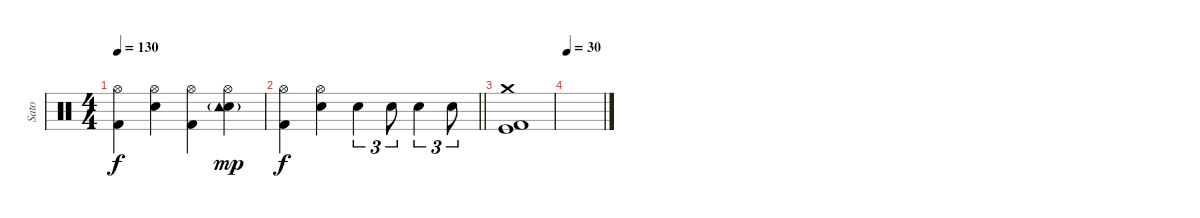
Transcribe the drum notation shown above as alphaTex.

\track ("Sato" "Sato") {instrument percussion}
\staff {score}
\articulation defaults
\ts (4 4)
\tempo 130
\clef neutral
\ks c
("Hi-Hat (open)" "Kick (hit) 2").4{dy f} ("Hi-Hat (open)" "Electric Snare (hit)").4 ("Hi-Hat (open)" "Kick (hit) 2").4 ("Hi-Hat (open)" "Electric Snare (hit)" "Tambourine (hit)"{g}).4{dy mp} |
\barLineRight lightlight
("Hi-Hat (open)" "Kick (hit) 2").4{dy f} ("Hi-Hat (open)" "Electric Snare (hit)").4 "Electric Snare (hit)".4{tu (3 2)} "Electric Snare (hit)".8{tu (3 2)} "Electric Snare (hit)".4{tu (3 2)} "Electric Snare (hit)".8{tu (3 2)} |
("Crash medium (hit)" "Kick (hit) 2" "Kick (hit)").1 |
\tempo 30
